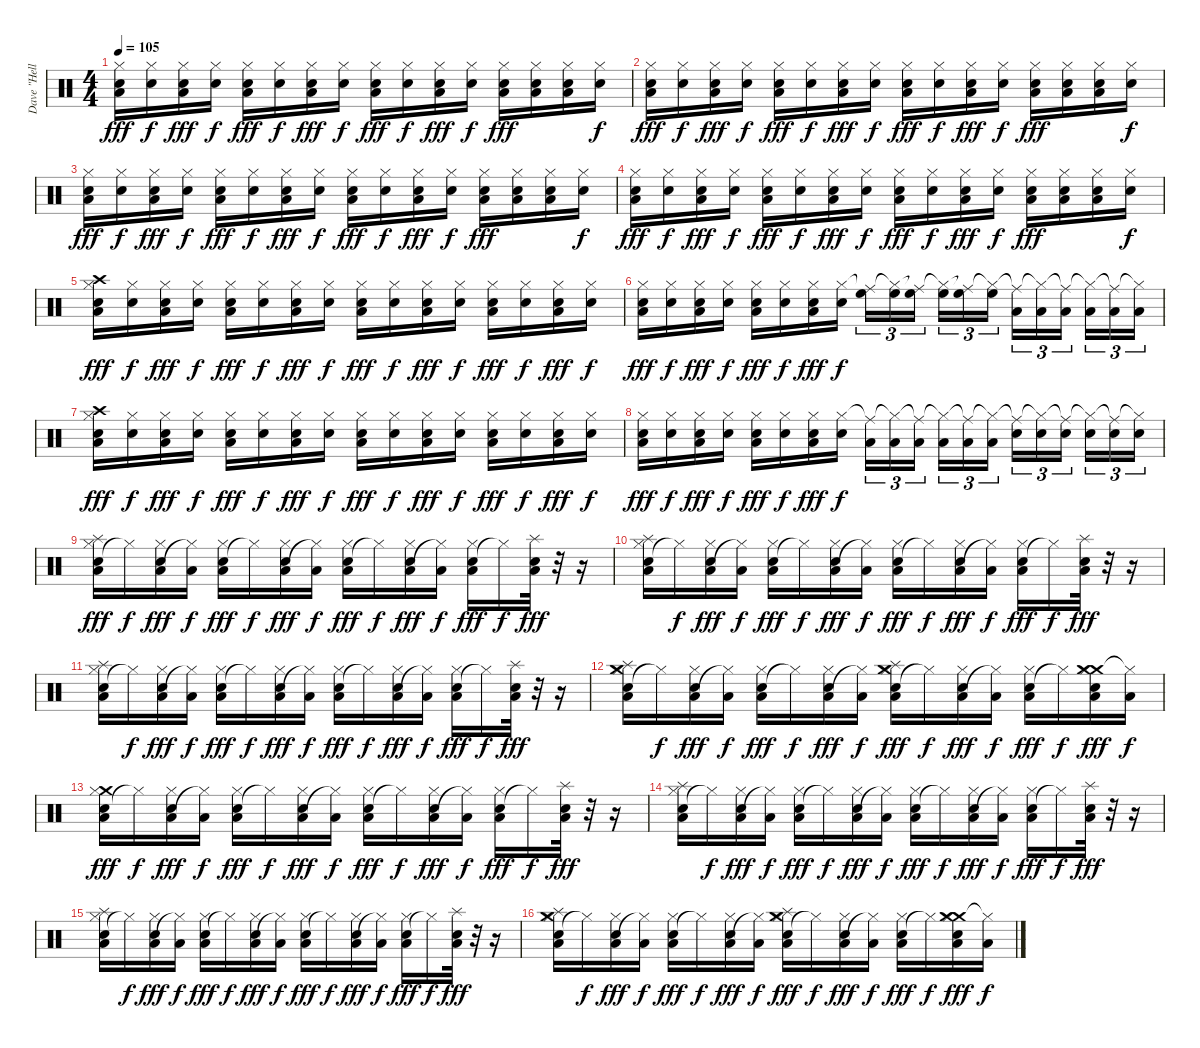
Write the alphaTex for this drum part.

\track ("Dave \"Hellstorm\" Chiarella" "Dave \"Hell") {solo instrument percussion}
\staff {score}
\articulation defaults
\ts (4 4)
\tempo 105
\clef neutral
\ks c
("Electric Snare (hit)" "Low Floor Tom (hit)" "Hi-Hat (closed)").16{dy fff} ("Electric Snare (hit)" "Hi-Hat (closed)").16{dy f} ("Electric Snare (hit)" "Low Floor Tom (hit)" "Hi-Hat (closed)").16{dy fff} ("Electric Snare (hit)" "Hi-Hat (closed)").16{dy f} ("Electric Snare (hit)" "Low Floor Tom (hit)" "Hi-Hat (closed)").16{dy fff} ("Electric Snare (hit)" "Hi-Hat (closed)").16{dy f} ("Electric Snare (hit)" "Low Floor Tom (hit)" "Hi-Hat (closed)").16{dy fff} ("Electric Snare (hit)" "Hi-Hat (closed)").16{dy f} ("Electric Snare (hit)" "Low Floor Tom (hit)" "Hi-Hat (closed)").16{dy fff} ("Electric Snare (hit)" "Hi-Hat (closed)").16{dy f} ("Electric Snare (hit)" "Low Floor Tom (hit)" "Hi-Hat (closed)").16{dy fff} ("Electric Snare (hit)" "Hi-Hat (closed)").16{dy f} ("Electric Snare (hit)" "Low Floor Tom (hit)" "Hi-Hat (closed)").16{dy fff} ("Electric Snare (hit)" "Low Floor Tom (hit)" "Hi-Hat (closed)").16 ("Electric Snare (hit)" "Low Floor Tom (hit)" "Hi-Hat (closed)").16 ("Electric Snare (hit)" "Hi-Hat (closed)").16{dy f} |
("Electric Snare (hit)" "Low Floor Tom (hit)" "Hi-Hat (closed)").16{dy fff} ("Electric Snare (hit)" "Hi-Hat (closed)").16{dy f} ("Electric Snare (hit)" "Low Floor Tom (hit)" "Hi-Hat (closed)").16{dy fff} ("Electric Snare (hit)" "Hi-Hat (closed)").16{dy f} ("Electric Snare (hit)" "Low Floor Tom (hit)" "Hi-Hat (closed)").16{dy fff} ("Electric Snare (hit)" "Hi-Hat (closed)").16{dy f} ("Electric Snare (hit)" "Low Floor Tom (hit)" "Hi-Hat (closed)").16{dy fff} ("Electric Snare (hit)" "Hi-Hat (closed)").16{dy f} ("Electric Snare (hit)" "Low Floor Tom (hit)" "Hi-Hat (closed)").16{dy fff} ("Electric Snare (hit)" "Hi-Hat (closed)").16{dy f} ("Electric Snare (hit)" "Low Floor Tom (hit)" "Hi-Hat (closed)").16{dy fff} ("Electric Snare (hit)" "Hi-Hat (closed)").16{dy f} ("Electric Snare (hit)" "Low Floor Tom (hit)" "Hi-Hat (closed)").16{dy fff} ("Electric Snare (hit)" "Low Floor Tom (hit)" "Hi-Hat (closed)").16 ("Electric Snare (hit)" "Low Floor Tom (hit)" "Hi-Hat (closed)").16 ("Electric Snare (hit)" "Hi-Hat (closed)").16{dy f} |
("Electric Snare (hit)" "Low Floor Tom (hit)" "Hi-Hat (closed)").16{dy fff} ("Electric Snare (hit)" "Hi-Hat (closed)").16{dy f} ("Electric Snare (hit)" "Low Floor Tom (hit)" "Hi-Hat (closed)").16{dy fff} ("Electric Snare (hit)" "Hi-Hat (closed)").16{dy f} ("Electric Snare (hit)" "Low Floor Tom (hit)" "Hi-Hat (closed)").16{dy fff} ("Electric Snare (hit)" "Hi-Hat (closed)").16{dy f} ("Electric Snare (hit)" "Low Floor Tom (hit)" "Hi-Hat (closed)").16{dy fff} ("Electric Snare (hit)" "Hi-Hat (closed)").16{dy f} ("Electric Snare (hit)" "Low Floor Tom (hit)" "Hi-Hat (closed)").16{dy fff} ("Electric Snare (hit)" "Hi-Hat (closed)").16{dy f} ("Electric Snare (hit)" "Low Floor Tom (hit)" "Hi-Hat (closed)").16{dy fff} ("Electric Snare (hit)" "Hi-Hat (closed)").16{dy f} ("Electric Snare (hit)" "Low Floor Tom (hit)" "Hi-Hat (closed)").16{dy fff} ("Electric Snare (hit)" "Low Floor Tom (hit)" "Hi-Hat (closed)").16 ("Electric Snare (hit)" "Low Floor Tom (hit)" "Hi-Hat (closed)").16 ("Electric Snare (hit)" "Hi-Hat (closed)").16{dy f} |
("Electric Snare (hit)" "Low Floor Tom (hit)" "Hi-Hat (closed)").16{dy fff} ("Electric Snare (hit)" "Hi-Hat (closed)").16{dy f} ("Electric Snare (hit)" "Low Floor Tom (hit)" "Hi-Hat (closed)").16{dy fff} ("Electric Snare (hit)" "Hi-Hat (closed)").16{dy f} ("Electric Snare (hit)" "Low Floor Tom (hit)" "Hi-Hat (closed)").16{dy fff} ("Electric Snare (hit)" "Hi-Hat (closed)").16{dy f} ("Electric Snare (hit)" "Low Floor Tom (hit)" "Hi-Hat (closed)").16{dy fff} ("Electric Snare (hit)" "Hi-Hat (closed)").16{dy f} ("Electric Snare (hit)" "Low Floor Tom (hit)" "Hi-Hat (closed)").16{dy fff} ("Electric Snare (hit)" "Hi-Hat (closed)").16{dy f} ("Electric Snare (hit)" "Low Floor Tom (hit)" "Hi-Hat (closed)").16{dy fff} ("Electric Snare (hit)" "Hi-Hat (closed)").16{dy f} ("Electric Snare (hit)" "Low Floor Tom (hit)" "Hi-Hat (closed)").16{dy fff} ("Electric Snare (hit)" "Low Floor Tom (hit)" "Hi-Hat (closed)").16 ("Electric Snare (hit)" "Low Floor Tom (hit)" "Hi-Hat (closed)").16 ("Electric Snare (hit)" "Hi-Hat (closed)").16{dy f} |
("Electric Snare (hit)" "Crash high (hit)" "Low Floor Tom (hit)" "Hi-Hat (closed)").16{dy fff} ("Electric Snare (hit)" "Hi-Hat (closed)").16{dy f} ("Electric Snare (hit)" "Low Floor Tom (hit)" "Hi-Hat (closed)").16{dy fff} ("Electric Snare (hit)" "Hi-Hat (closed)").16{dy f} ("Electric Snare (hit)" "Low Floor Tom (hit)" "Hi-Hat (closed)").16{dy fff} ("Electric Snare (hit)" "Hi-Hat (closed)").16{dy f} ("Electric Snare (hit)" "Low Floor Tom (hit)" "Hi-Hat (closed)").16{dy fff} ("Electric Snare (hit)" "Hi-Hat (closed)").16{dy f} ("Electric Snare (hit)" "Low Floor Tom (hit)" "Hi-Hat (closed)").16{dy fff} ("Electric Snare (hit)" "Hi-Hat (closed)").16{dy f} ("Electric Snare (hit)" "Low Floor Tom (hit)" "Hi-Hat (closed)").16{dy fff} ("Electric Snare (hit)" "Hi-Hat (closed)").16{dy f} ("Electric Snare (hit)" "Low Floor Tom (hit)" "Hi-Hat (closed)").16{dy fff} ("Electric Snare (hit)" "Hi-Hat (closed)").16{dy f} ("Electric Snare (hit)" "Low Floor Tom (hit)" "Hi-Hat (closed)").16{dy fff} ("Electric Snare (hit)" "Hi-Hat (closed)").16{dy f} |
("Electric Snare (hit)" "Low Floor Tom (hit)" "Hi-Hat (closed)").16{dy fff} ("Electric Snare (hit)" "Hi-Hat (closed)").16{dy f} ("Electric Snare (hit)" "Low Floor Tom (hit)" "Hi-Hat (closed)").16{dy fff} ("Electric Snare (hit)" "Hi-Hat (closed)").16{dy f} ("Electric Snare (hit)" "Low Floor Tom (hit)" "Hi-Hat (closed)").16{dy fff} ("Electric Snare (hit)" "Hi-Hat (closed)").16{dy f} ("Electric Snare (hit)" "Low Floor Tom (hit)" "Hi-Hat (closed)").16{dy fff} ("Electric Snare (hit)" "Hi-Hat (closed)").16{dy f} ("High Floor Tom (hit)" "Ride (middle)"{t}).16{tu (3 2)} ("High Floor Tom (hit)" "Hi-Hat (closed)"{t}).16{tu (3 2)} ("High Floor Tom (hit)" "Ride (middle)"{t}).16{tu (3 2) beam splitsecondary} ("High Floor Tom (hit)" "Hi-Hat (closed)"{t}).16{tu (3 2)} ("High Floor Tom (hit)" "Ride (middle)"{t}).16{tu (3 2)} ("High Floor Tom (hit)" "Hi-Hat (closed)"{t}).16{tu (3 2)} ("Low Tom (hit)" "Ride (middle)"{t}).16{tu (3 2)} ("Low Tom (hit)" "Hi-Hat (closed)"{t}).16{tu (3 2)} ("Low Tom (hit)" "Ride (middle)"{t}).16{tu (3 2) beam splitsecondary} ("Low Tom (hit)" "Hi-Hat (closed)"{t}).16{tu (3 2)} ("Low Tom (hit)" "Ride (middle)"{t}).16{tu (3 2)} ("Low Tom (hit)" "Hi-Hat (closed)"{t}).16{tu (3 2)} |
("Electric Snare (hit)" "Crash high (hit)" "Low Floor Tom (hit)" "Hi-Hat (closed)").16{dy fff} ("Electric Snare (hit)" "Hi-Hat (closed)").16{dy f} ("Electric Snare (hit)" "Low Floor Tom (hit)" "Hi-Hat (closed)").16{dy fff} ("Electric Snare (hit)" "Hi-Hat (closed)").16{dy f} ("Electric Snare (hit)" "Low Floor Tom (hit)" "Hi-Hat (closed)").16{dy fff} ("Electric Snare (hit)" "Hi-Hat (closed)").16{dy f} ("Electric Snare (hit)" "Low Floor Tom (hit)" "Hi-Hat (closed)").16{dy fff} ("Electric Snare (hit)" "Hi-Hat (closed)").16{dy f} ("Electric Snare (hit)" "Low Floor Tom (hit)" "Hi-Hat (closed)").16{dy fff} ("Electric Snare (hit)" "Hi-Hat (closed)").16{dy f} ("Electric Snare (hit)" "Low Floor Tom (hit)" "Hi-Hat (closed)").16{dy fff} ("Electric Snare (hit)" "Hi-Hat (closed)").16{dy f} ("Electric Snare (hit)" "Low Floor Tom (hit)" "Hi-Hat (closed)").16{dy fff} ("Electric Snare (hit)" "Hi-Hat (closed)").16{dy f} ("Electric Snare (hit)" "Low Floor Tom (hit)" "Hi-Hat (closed)").16{dy fff} ("Electric Snare (hit)" "Hi-Hat (closed)").16{dy f} |
("Electric Snare (hit)" "Low Floor Tom (hit)" "Hi-Hat (closed)").16{dy fff} ("Electric Snare (hit)" "Hi-Hat (closed)").16{dy f} ("Electric Snare (hit)" "Low Floor Tom (hit)" "Hi-Hat (closed)").16{dy fff} ("Electric Snare (hit)" "Hi-Hat (closed)").16{dy f} ("Electric Snare (hit)" "Low Floor Tom (hit)" "Hi-Hat (closed)").16{dy fff} ("Electric Snare (hit)" "Hi-Hat (closed)").16{dy f} ("Electric Snare (hit)" "Low Floor Tom (hit)" "Hi-Hat (closed)").16{dy fff} ("Electric Snare (hit)" "Hi-Hat (closed)").16{dy f} ("Low Tom (hit)" "Ride (middle)"{t}).16{tu (3 2)} ("Low Tom (hit)" "Hi-Hat (closed)"{t}).16{tu (3 2)} ("Low Tom (hit)" "Ride (middle)"{t}).16{tu (3 2) beam splitsecondary} ("Low Tom (hit)" "Hi-Hat (closed)"{t}).16{tu (3 2)} ("Low Tom (hit)" "Ride (middle)"{t}).16{tu (3 2)} ("Low Tom (hit)" "Hi-Hat (closed)"{t}).16{tu (3 2)} ("Electric Snare (hit)" "Ride (middle)"{t}).16{tu (3 2)} ("Electric Snare (hit)" "Hi-Hat (closed)"{t}).16{tu (3 2)} ("Electric Snare (hit)" "Ride (middle)"{t}).16{tu (3 2) beam splitsecondary} ("Electric Snare (hit)" "Hi-Hat (closed)"{t}).16{tu (3 2)} ("Electric Snare (hit)" "Ride (middle)"{t}).16{tu (3 2)} ("Electric Snare (hit)" "Hi-Hat (closed)"{t}).16{tu (3 2)} |
("Electric Snare (hit)" "Splash (hit)" "Low Floor Tom (hit)" "Hi-Hat (closed)").16{dy fff} "Hi-Hat (closed)"{t}.16{dy f} ("Electric Snare (hit)" "Low Floor Tom (hit)" "Hi-Hat (closed)").16{dy fff} ("Low Floor Tom (hit)" "Hi-Hat (closed)"{t}).16{dy f} ("Electric Snare (hit)" "Low Floor Tom (hit)" "Hi-Hat (closed)").16{dy fff} "Hi-Hat (closed)"{t}.16{dy f} ("Electric Snare (hit)" "Low Floor Tom (hit)" "Hi-Hat (closed)").16{dy fff} ("Low Floor Tom (hit)" "Hi-Hat (closed)"{t}).16{dy f} ("Electric Snare (hit)" "Low Floor Tom (hit)" "Hi-Hat (closed)").16{dy fff} "Hi-Hat (closed)"{t}.16{dy f} ("Electric Snare (hit)" "Low Floor Tom (hit)" "Hi-Hat (closed)").16{dy fff} ("Low Floor Tom (hit)" "Hi-Hat (closed)"{t}).16{dy f} ("Electric Snare (hit)" "Low Floor Tom (hit)" "Hi-Hat (closed)").16{dy fff} "Hi-Hat (closed)"{t}.16{dy f} ("Electric Snare (hit)" "Splash (hit)" "Low Floor Tom (hit)").32{dy fff} r.32 r.16 |
("Electric Snare (hit)" "Splash (hit)" "Low Floor Tom (hit)" "Hi-Hat (closed)").16 "Hi-Hat (closed)"{t}.16{dy f} ("Electric Snare (hit)" "Low Floor Tom (hit)" "Hi-Hat (closed)").16{dy fff} ("Low Floor Tom (hit)" "Hi-Hat (closed)"{t}).16{dy f} ("Electric Snare (hit)" "Low Floor Tom (hit)" "Hi-Hat (closed)").16{dy fff} "Hi-Hat (closed)"{t}.16{dy f} ("Electric Snare (hit)" "Low Floor Tom (hit)" "Hi-Hat (closed)").16{dy fff} ("Low Floor Tom (hit)" "Hi-Hat (closed)"{t}).16{dy f} ("Electric Snare (hit)" "Low Floor Tom (hit)" "Hi-Hat (closed)").16{dy fff} "Hi-Hat (closed)"{t}.16{dy f} ("Electric Snare (hit)" "Low Floor Tom (hit)" "Hi-Hat (closed)").16{dy fff} ("Low Floor Tom (hit)" "Hi-Hat (closed)"{t}).16{dy f} ("Electric Snare (hit)" "Low Floor Tom (hit)" "Hi-Hat (closed)").16{dy fff} "Hi-Hat (closed)"{t}.16{dy f} ("Electric Snare (hit)" "Splash (hit)" "Low Floor Tom (hit)").32{dy fff} r.32 r.16 |
("Electric Snare (hit)" "Splash (hit)" "Low Floor Tom (hit)" "Hi-Hat (closed)").16 "Hi-Hat (closed)"{t}.16{dy f} ("Electric Snare (hit)" "Low Floor Tom (hit)" "Hi-Hat (closed)").16{dy fff} ("Low Floor Tom (hit)" "Hi-Hat (closed)"{t}).16{dy f} ("Electric Snare (hit)" "Low Floor Tom (hit)" "Hi-Hat (closed)").16{dy fff} "Hi-Hat (closed)"{t}.16{dy f} ("Electric Snare (hit)" "Low Floor Tom (hit)" "Hi-Hat (closed)").16{dy fff} ("Low Floor Tom (hit)" "Hi-Hat (closed)"{t}).16{dy f} ("Electric Snare (hit)" "Low Floor Tom (hit)" "Hi-Hat (closed)").16{dy fff} "Hi-Hat (closed)"{t}.16{dy f} ("Electric Snare (hit)" "Low Floor Tom (hit)" "Hi-Hat (closed)").16{dy fff} ("Low Floor Tom (hit)" "Hi-Hat (closed)"{t}).16{dy f} ("Electric Snare (hit)" "Low Floor Tom (hit)" "Hi-Hat (closed)").16{dy fff} "Hi-Hat (closed)"{t}.16{dy f} ("Electric Snare (hit)" "Splash (hit)" "Low Floor Tom (hit)").32{dy fff} r.32 r.16 |
("Electric Snare (hit)" "Crash medium (hit)" "Splash (hit)" "Low Floor Tom (hit)" "Hi-Hat (closed)").16 "Hi-Hat (closed)"{t}.16{dy f} ("Electric Snare (hit)" "Low Floor Tom (hit)" "Hi-Hat (closed)").16{dy fff} ("Low Floor Tom (hit)" "Hi-Hat (closed)"{t}).16{dy f} ("Electric Snare (hit)" "Low Floor Tom (hit)" "Hi-Hat (closed)").16{dy fff} "Hi-Hat (closed)"{t}.16{dy f} ("Electric Snare (hit)" "Low Floor Tom (hit)" "Hi-Hat (closed)").16{dy fff} ("Low Floor Tom (hit)" "Hi-Hat (closed)"{t}).16{dy f} ("Electric Snare (hit)" "Crash medium (hit)" "Splash (hit)" "Low Floor Tom (hit)" "Hi-Hat (closed)").16{dy fff} "Hi-Hat (closed)"{t}.16{dy f} ("Electric Snare (hit)" "Low Floor Tom (hit)" "Hi-Hat (closed)").16{dy fff} ("Low Floor Tom (hit)" "Hi-Hat (closed)"{t}).16{dy f} ("Electric Snare (hit)" "Low Floor Tom (hit)" "Hi-Hat (closed)").16{dy fff} "Hi-Hat (closed)"{t}.16{dy f} ("Electric Snare (hit)" "Crash medium (hit)" "Crash medium (hit)" "Low Floor Tom (hit)" "Hi-Hat (closed)").16{dy fff} ("Low Floor Tom (hit)" "Hi-Hat (closed)"{t}).16{dy f} |
("Electric Snare (hit)" "Crash medium (hit)" "Low Floor Tom (hit)" "Hi-Hat (closed)").16{dy fff} "Hi-Hat (closed)"{t}.16{dy f} ("Electric Snare (hit)" "Low Floor Tom (hit)" "Hi-Hat (closed)").16{dy fff} ("Low Floor Tom (hit)" "Hi-Hat (closed)"{t}).16{dy f} ("Electric Snare (hit)" "Low Floor Tom (hit)" "Hi-Hat (closed)").16{dy fff} "Hi-Hat (closed)"{t}.16{dy f} ("Electric Snare (hit)" "Low Floor Tom (hit)" "Hi-Hat (closed)").16{dy fff} ("Low Floor Tom (hit)" "Hi-Hat (closed)"{t}).16{dy f} ("Electric Snare (hit)" "Low Floor Tom (hit)" "Hi-Hat (closed)").16{dy fff} "Hi-Hat (closed)"{t}.16{dy f} ("Electric Snare (hit)" "Low Floor Tom (hit)" "Hi-Hat (closed)").16{dy fff} ("Low Floor Tom (hit)" "Hi-Hat (closed)"{t}).16{dy f} ("Electric Snare (hit)" "Low Floor Tom (hit)" "Hi-Hat (closed)").16{dy fff} "Hi-Hat (closed)"{t}.16{dy f} ("Electric Snare (hit)" "Splash (hit)" "Low Floor Tom (hit)").32{dy fff} r.32 r.16 |
("Electric Snare (hit)" "Splash (hit)" "Low Floor Tom (hit)" "Hi-Hat (closed)").16 "Hi-Hat (closed)"{t}.16{dy f} ("Electric Snare (hit)" "Low Floor Tom (hit)" "Hi-Hat (closed)").16{dy fff} ("Low Floor Tom (hit)" "Hi-Hat (closed)"{t}).16{dy f} ("Electric Snare (hit)" "Low Floor Tom (hit)" "Hi-Hat (closed)").16{dy fff} "Hi-Hat (closed)"{t}.16{dy f} ("Electric Snare (hit)" "Low Floor Tom (hit)" "Hi-Hat (closed)").16{dy fff} ("Low Floor Tom (hit)" "Hi-Hat (closed)"{t}).16{dy f} ("Electric Snare (hit)" "Low Floor Tom (hit)" "Hi-Hat (closed)").16{dy fff} "Hi-Hat (closed)"{t}.16{dy f} ("Electric Snare (hit)" "Low Floor Tom (hit)" "Hi-Hat (closed)").16{dy fff} ("Low Floor Tom (hit)" "Hi-Hat (closed)"{t}).16{dy f} ("Electric Snare (hit)" "Low Floor Tom (hit)" "Hi-Hat (closed)").16{dy fff} "Hi-Hat (closed)"{t}.16{dy f} ("Electric Snare (hit)" "Splash (hit)" "Low Floor Tom (hit)").32{dy fff} r.32 r.16 |
("Electric Snare (hit)" "Splash (hit)" "Low Floor Tom (hit)" "Hi-Hat (closed)").16 "Hi-Hat (closed)"{t}.16{dy f} ("Electric Snare (hit)" "Low Floor Tom (hit)" "Hi-Hat (closed)").16{dy fff} ("Low Floor Tom (hit)" "Hi-Hat (closed)"{t}).16{dy f} ("Electric Snare (hit)" "Low Floor Tom (hit)" "Hi-Hat (closed)").16{dy fff} "Hi-Hat (closed)"{t}.16{dy f} ("Electric Snare (hit)" "Low Floor Tom (hit)" "Hi-Hat (closed)").16{dy fff} ("Low Floor Tom (hit)" "Hi-Hat (closed)"{t}).16{dy f} ("Electric Snare (hit)" "Low Floor Tom (hit)" "Hi-Hat (closed)").16{dy fff} "Hi-Hat (closed)"{t}.16{dy f} ("Electric Snare (hit)" "Low Floor Tom (hit)" "Hi-Hat (closed)").16{dy fff} ("Low Floor Tom (hit)" "Hi-Hat (closed)"{t}).16{dy f} ("Electric Snare (hit)" "Low Floor Tom (hit)" "Hi-Hat (closed)").16{dy fff} "Hi-Hat (closed)"{t}.16{dy f} ("Electric Snare (hit)" "Splash (hit)" "Low Floor Tom (hit)").32{dy fff} r.32 r.16 |
("Electric Snare (hit)" "Crash medium (hit)" "Splash (hit)" "Low Floor Tom (hit)" "Hi-Hat (closed)").16 "Hi-Hat (closed)"{t}.16{dy f} ("Electric Snare (hit)" "Low Floor Tom (hit)" "Hi-Hat (closed)").16{dy fff} ("Low Floor Tom (hit)" "Hi-Hat (closed)"{t}).16{dy f} ("Electric Snare (hit)" "Low Floor Tom (hit)" "Hi-Hat (closed)").16{dy fff} "Hi-Hat (closed)"{t}.16{dy f} ("Electric Snare (hit)" "Low Floor Tom (hit)" "Hi-Hat (closed)").16{dy fff} ("Low Floor Tom (hit)" "Hi-Hat (closed)"{t}).16{dy f} ("Electric Snare (hit)" "Crash medium (hit)" "Splash (hit)" "Low Floor Tom (hit)" "Hi-Hat (closed)").16{dy fff} "Hi-Hat (closed)"{t}.16{dy f} ("Electric Snare (hit)" "Low Floor Tom (hit)" "Hi-Hat (closed)").16{dy fff} ("Low Floor Tom (hit)" "Hi-Hat (closed)"{t}).16{dy f} ("Electric Snare (hit)" "Low Floor Tom (hit)" "Hi-Hat (closed)").16{dy fff} "Hi-Hat (closed)"{t}.16{dy f} ("Electric Snare (hit)" "Crash medium (hit)" "Crash medium (hit)" "Low Floor Tom (hit)" "Hi-Hat (closed)").16{dy fff} ("Low Floor Tom (hit)" "Hi-Hat (closed)"{t}).16{dy f}
